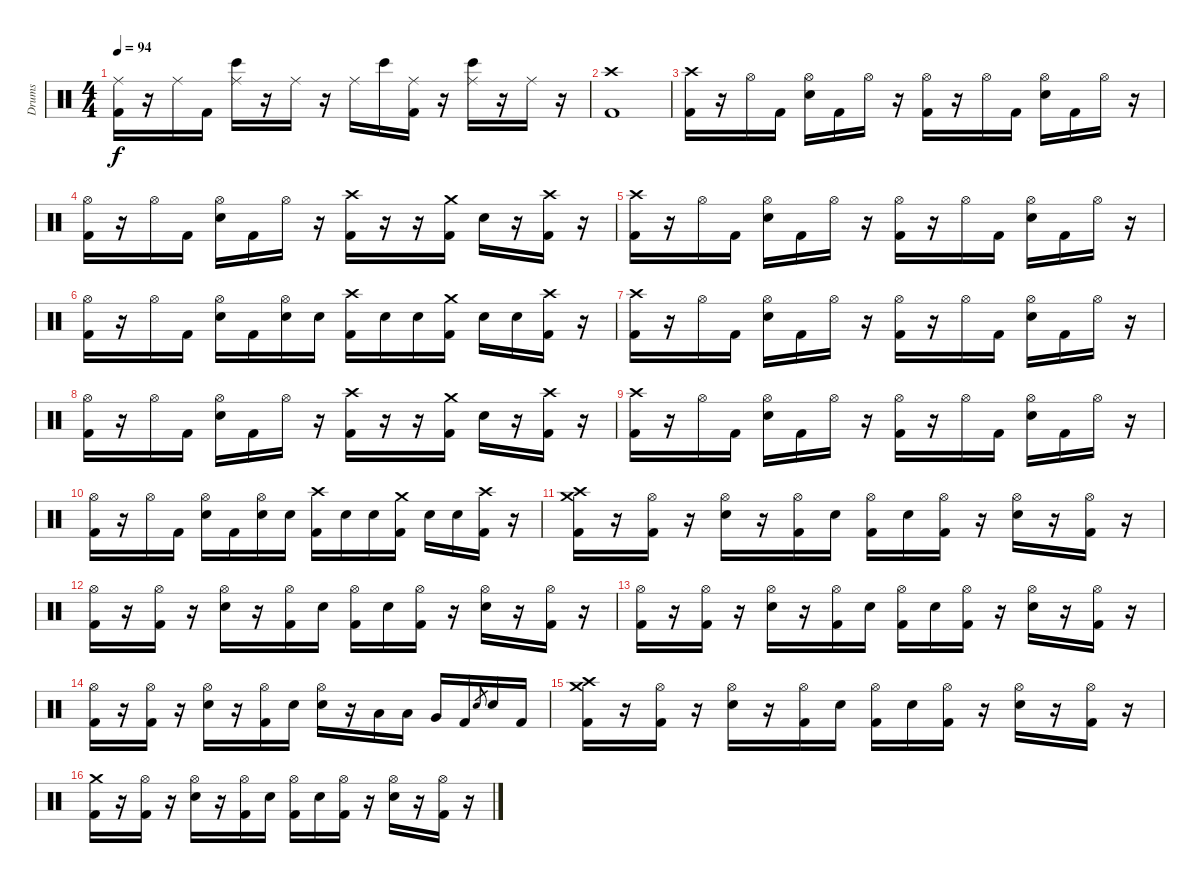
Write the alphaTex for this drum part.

\track ("Drums" "Drums") {instrument percussion}
\staff {score}
\articulation defaults
\ts (4 4)
\tempo 94
\clef neutral
\ks c
("Ride (middle)" "Kick (hit) 2").16{dy f} r.16 "Ride (middle)".16 "Kick (hit) 2".16 ("Ride (middle)" "Bongo High (hit)").16 r.16 "Ride (middle)".16 r.16 "Ride (middle)".16 "Bongo High (hit)".16 ("Ride (middle)" "Kick (hit) 2").16 r.16 ("Ride (middle)" "Bongo High (hit)").16 r.16 "Ride (middle)".16 r.16 |
("Crash high (hit)" "Kick (hit) 2").1 |
("Crash high (hit)" "Kick (hit) 2").16 r.16 "Hi-Hat (open)".16 "Kick (hit) 2".16 ("Hi-Hat (open)" "Snare (hit) 2").16 "Kick (hit) 2".16 "Hi-Hat (open)".16 r.16 ("Hi-Hat (open)" "Kick (hit) 2").16 r.16 "Hi-Hat (open)".16 "Kick (hit) 2".16 ("Hi-Hat (open)" "Snare (hit) 2").16 "Kick (hit) 2".16 "Hi-Hat (open)".16 r.16 |
("Hi-Hat (open)" "Kick (hit) 2").16 r.16 "Hi-Hat (open)".16 "Kick (hit) 2".16 ("Hi-Hat (open)" "Snare (hit) 2").16 "Kick (hit) 2".16 "Hi-Hat (open)".16 r.16 ("Crash high (hit)" "Kick (hit) 2").16 r.16 r.16 ("Crash medium (hit)" "Kick (hit) 2").16 "Snare (hit) 2".16 r.16 ("Crash high (hit)" "Kick (hit) 2").16 r.16 |
("Crash high (hit)" "Kick (hit) 2").16 r.16 "Hi-Hat (open)".16 "Kick (hit) 2".16 ("Hi-Hat (open)" "Snare (hit) 2").16 "Kick (hit) 2".16 "Hi-Hat (open)".16 r.16 ("Hi-Hat (open)" "Kick (hit) 2").16 r.16 "Hi-Hat (open)".16 "Kick (hit) 2".16 ("Hi-Hat (open)" "Snare (hit) 2").16 "Kick (hit) 2".16 "Hi-Hat (open)".16 r.16 |
("Hi-Hat (open)" "Kick (hit) 2").16 r.16 "Hi-Hat (open)".16 "Kick (hit) 2".16 ("Hi-Hat (open)" "Snare (hit) 2").16 "Kick (hit) 2".16 ("Hi-Hat (open)" "Snare (hit) 2").16 "Snare (hit) 2".16 ("Crash high (hit)" "Kick (hit) 2").16 "Snare (hit) 2".16 "Snare (hit) 2".16 ("Crash medium (hit)" "Kick (hit) 2").16 "Snare (hit) 2".16 "Snare (hit) 2".16 ("Crash high (hit)" "Kick (hit) 2").16 r.16 |
("Crash high (hit)" "Kick (hit) 2").16 r.16 "Hi-Hat (open)".16 "Kick (hit) 2".16 ("Hi-Hat (open)" "Snare (hit) 2").16 "Kick (hit) 2".16 "Hi-Hat (open)".16 r.16 ("Hi-Hat (open)" "Kick (hit) 2").16 r.16 "Hi-Hat (open)".16 "Kick (hit) 2".16 ("Hi-Hat (open)" "Snare (hit) 2").16 "Kick (hit) 2".16 "Hi-Hat (open)".16 r.16 |
("Hi-Hat (open)" "Kick (hit) 2").16 r.16 "Hi-Hat (open)".16 "Kick (hit) 2".16 ("Hi-Hat (open)" "Snare (hit) 2").16 "Kick (hit) 2".16 "Hi-Hat (open)".16 r.16 ("Crash high (hit)" "Kick (hit) 2").16 r.16 r.16 ("Crash medium (hit)" "Kick (hit) 2").16 "Snare (hit) 2".16 r.16 ("Crash high (hit)" "Kick (hit) 2").16 r.16 |
("Crash high (hit)" "Kick (hit) 2").16 r.16 "Hi-Hat (open)".16 "Kick (hit) 2".16 ("Hi-Hat (open)" "Snare (hit) 2").16 "Kick (hit) 2".16 "Hi-Hat (open)".16 r.16 ("Hi-Hat (open)" "Kick (hit) 2").16 r.16 "Hi-Hat (open)".16 "Kick (hit) 2".16 ("Hi-Hat (open)" "Snare (hit) 2").16 "Kick (hit) 2".16 "Hi-Hat (open)".16 r.16 |
("Hi-Hat (open)" "Kick (hit) 2").16 r.16 "Hi-Hat (open)".16 "Kick (hit) 2".16 ("Hi-Hat (open)" "Snare (hit) 2").16 "Kick (hit) 2".16 ("Hi-Hat (open)" "Snare (hit) 2").16 "Snare (hit) 2".16 ("Crash high (hit)" "Kick (hit) 2").16 "Snare (hit) 2".16 "Snare (hit) 2".16 ("Crash medium (hit)" "Kick (hit) 2").16 "Snare (hit) 2".16 "Snare (hit) 2".16 ("Crash high (hit)" "Kick (hit) 2").16 r.16 |
("Crash high (hit)" "Crash medium (hit)" "Kick (hit) 2").16 r.16 ("Hi-Hat (open)" "Kick (hit) 2").16 r.16 ("Hi-Hat (open)" "Snare (hit) 2").16 r.16 ("Hi-Hat (open)" "Kick (hit) 2").16 "Snare (hit) 2".16 ("Hi-Hat (open)" "Kick (hit) 2").16 "Snare (hit) 2".16 ("Hi-Hat (open)" "Kick (hit) 2").16 r.16 ("Hi-Hat (open)" "Snare (hit) 2").16 r.16 ("Hi-Hat (open)" "Kick (hit) 2").16 r.16 |
("Hi-Hat (open)" "Kick (hit) 2").16 r.16 ("Hi-Hat (open)" "Kick (hit) 2").16 r.16 ("Hi-Hat (open)" "Snare (hit) 2").16 r.16 ("Hi-Hat (open)" "Kick (hit) 2").16 "Snare (hit) 2".16 ("Hi-Hat (open)" "Kick (hit) 2").16 "Snare (hit) 2".16 ("Hi-Hat (open)" "Kick (hit) 2").16 r.16 ("Hi-Hat (open)" "Snare (hit) 2").16 r.16 ("Hi-Hat (open)" "Kick (hit) 2").16 r.16 |
("Hi-Hat (open)" "Kick (hit) 2").16 r.16 ("Hi-Hat (open)" "Kick (hit) 2").16 r.16 ("Hi-Hat (open)" "Snare (hit) 2").16 r.16 ("Hi-Hat (open)" "Kick (hit) 2").16 "Snare (hit) 2".16 ("Hi-Hat (open)" "Kick (hit) 2").16 "Snare (hit) 2".16 ("Hi-Hat (open)" "Kick (hit) 2").16 r.16 ("Hi-Hat (open)" "Snare (hit) 2").16 r.16 ("Hi-Hat (open)" "Kick (hit) 2").16 r.16 |
("Hi-Hat (open)" "Kick (hit) 2").16 r.16 ("Hi-Hat (open)" "Kick (hit) 2").16 r.16 ("Hi-Hat (open)" "Snare (hit) 2").16 r.16 ("Hi-Hat (open)" "Kick (hit) 2").16 "Snare (hit) 2".16 ("Hi-Hat (open)" "Snare (hit) 2").16 r.16 "Low Tom (hit)".16 "Low Tom (hit)".16 "Very Low Tom (hit)".16 "Kick (hit) 2".16 "Snare (hit) 2".8{gr} "Snare (hit) 2".16 "Kick (hit) 2".16 |
("Crash high (hit)" "Crash medium (hit)" "Kick (hit) 2").16 r.16 ("Hi-Hat (open)" "Kick (hit) 2").16 r.16 ("Hi-Hat (open)" "Snare (hit) 2").16 r.16 ("Hi-Hat (open)" "Kick (hit) 2").16 "Snare (hit) 2".16 ("Hi-Hat (open)" "Kick (hit) 2").16 "Snare (hit) 2".16 ("Hi-Hat (open)" "Kick (hit) 2").16 r.16 ("Hi-Hat (open)" "Snare (hit) 2").16 r.16 ("Hi-Hat (open)" "Kick (hit) 2").16 r.16 |
("Crash medium (hit)" "Kick (hit) 2").16 r.16 ("Hi-Hat (open)" "Kick (hit) 2").16 r.16 ("Hi-Hat (open)" "Snare (hit) 2").16 r.16 ("Hi-Hat (open)" "Kick (hit) 2").16 "Snare (hit) 2".16 ("Hi-Hat (open)" "Kick (hit) 2").16 "Snare (hit) 2".16 ("Hi-Hat (open)" "Kick (hit) 2").16 r.16 ("Hi-Hat (open)" "Snare (hit) 2").16 r.16 ("Hi-Hat (open)" "Kick (hit) 2").16 r.16
